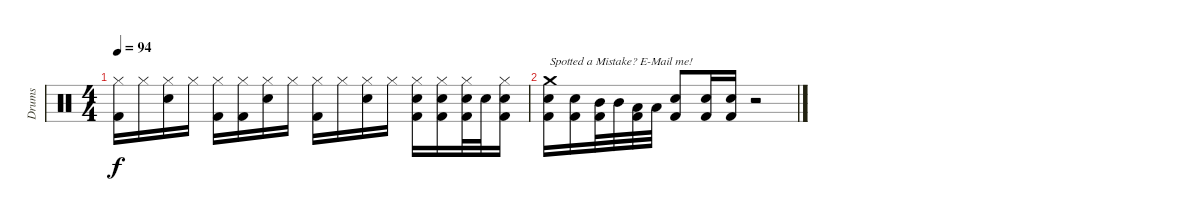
\track ("Drums" "Drums") {instrument percussion}
\staff {score}
\articulation defaults
\ts (4 4)
\tempo 94
\clef neutral
\ks c
("Hi-Hat (closed)" "Kick (hit) 2").16{dy f} "Hi-Hat (closed)".16 ("Hi-Hat (closed)" "Electric Snare (hit)").16 "Hi-Hat (closed)".16 ("Hi-Hat (closed)" "Kick (hit) 2").16 ("Hi-Hat (closed)" "Kick (hit) 2").16 ("Hi-Hat (closed)" "Electric Snare (hit)").16 "Hi-Hat (closed)".16 ("Hi-Hat (closed)" "Kick (hit) 2").16 "Hi-Hat (closed)".16 ("Hi-Hat (closed)" "Electric Snare (hit)").16 "Hi-Hat (closed)".16 ("Hi-Hat (closed)" "Electric Snare (hit)" "Kick (hit) 2").16 ("Hi-Hat (closed)" "Electric Snare (hit)" "Kick (hit) 2").16 ("Hi-Hat (closed)" "Electric Snare (hit)" "Kick (hit) 2").32 "Electric Snare (hit)".32 ("Hi-Hat (closed)" "Electric Snare (hit)" "Kick (hit) 2").16 |
("Crash medium (hit)" "Electric Snare (hit)" "Kick (hit) 2").16{txt "Spotted a Mistake? E-Mail me!"} ("Electric Snare (hit)" "Kick (hit) 2").16 ("Mid Tom (hit)" "Kick (hit) 2").32 "Mid Tom (hit)".32 ("Low Tom (hit)" "Kick (hit) 2").32 "Low Tom (hit)".32 ("Electric Snare (hit)" "Kick (hit) 2").8 ("Electric Snare (hit)" "Kick (hit) 2").16 ("Electric Snare (hit)" "Kick (hit) 2").16 r.2
